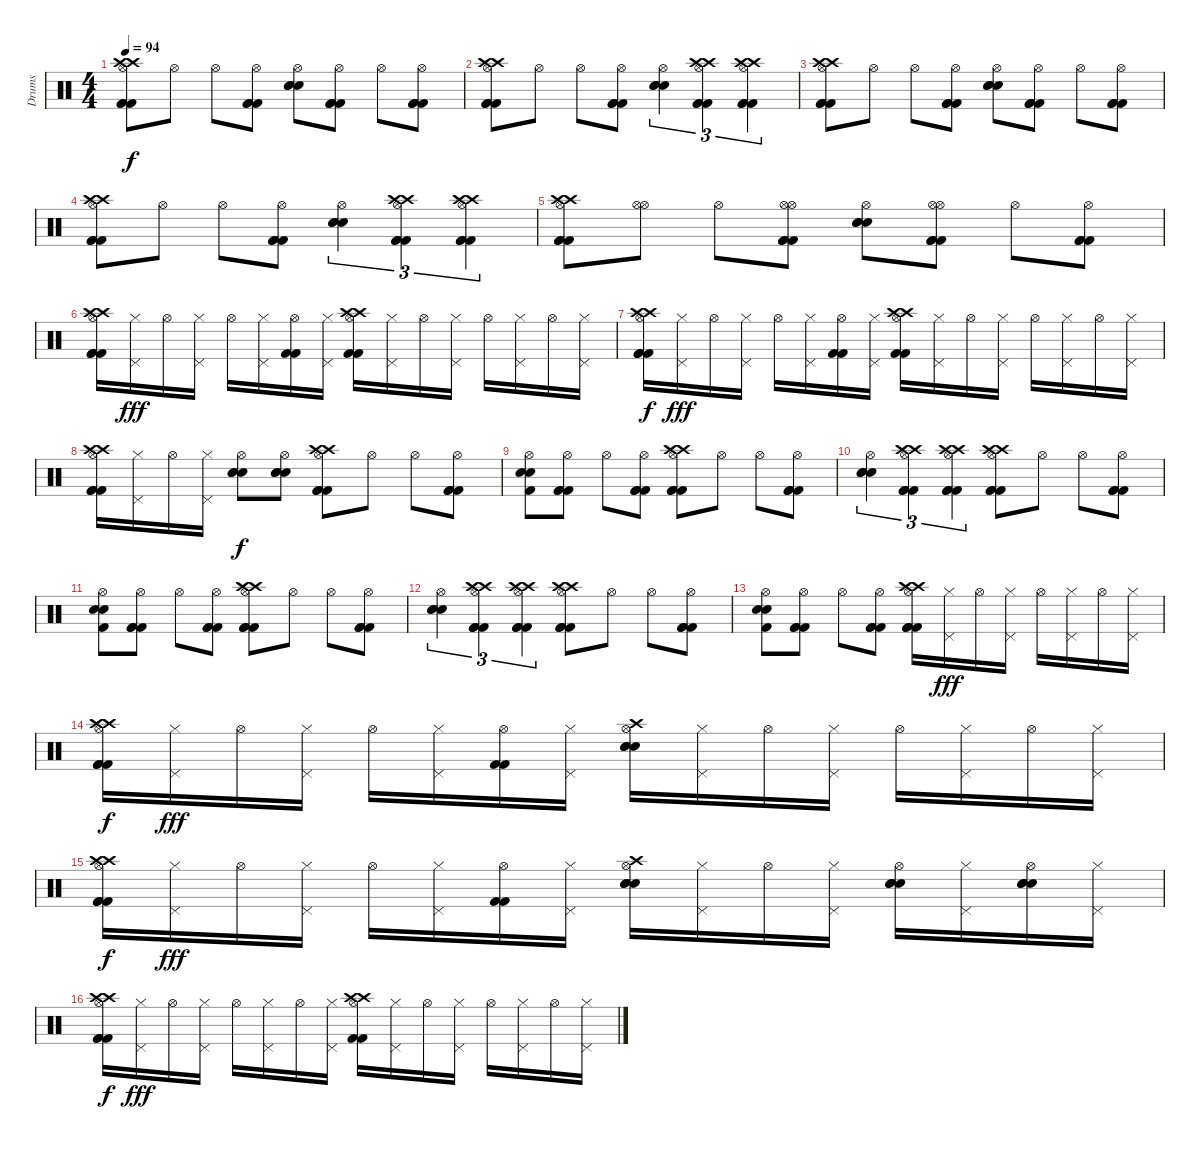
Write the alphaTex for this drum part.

\track ("Drums" "Drums") {instrument percussion}
\staff {score}
\articulation defaults
\ts (4 4)
\tempo 94
\clef neutral
\ks c
("Hi-Hat (open)" "Crash high (hit)" "Crash high (hit)" "Kick (hit) 2" "Kick (hit) 2" "Kick (hit) 2").8{dy f} "Hi-Hat (open)".8 "Hi-Hat (open)".8 ("Hi-Hat (open)" "Kick (hit) 2" "Kick (hit) 2" "Kick (hit) 2").8 ("Hi-Hat (open)" "Snare (hit) 2" "Snare (hit) 2" "Snare (hit) 2").8 ("Hi-Hat (open)" "Kick (hit) 2" "Kick (hit) 2" "Kick (hit) 2").8 "Hi-Hat (open)".8 ("Hi-Hat (open)" "Kick (hit) 2" "Kick (hit) 2" "Kick (hit) 2").8 |
("Hi-Hat (open)" "Crash high (hit)" "Crash high (hit)" "Kick (hit) 2" "Kick (hit) 2" "Kick (hit) 2").8 "Hi-Hat (open)".8 "Hi-Hat (open)".8 ("Hi-Hat (open)" "Kick (hit) 2" "Kick (hit) 2" "Kick (hit) 2").8 ("Hi-Hat (open)" "Snare (hit) 2" "Snare (hit) 2" "Snare (hit) 2").4{tu (3 2)} ("Hi-Hat (open)" "Crash high (hit)" "Crash high (hit)" "Kick (hit) 2" "Kick (hit) 2" "Kick (hit) 2").4{tu (3 2)} ("Hi-Hat (open)" "Crash high (hit)" "Crash high (hit)" "Kick (hit) 2" "Kick (hit) 2" "Kick (hit) 2").4{tu (3 2)} |
("Hi-Hat (open)" "Crash high (hit)" "Crash high (hit)" "Kick (hit) 2" "Kick (hit) 2" "Kick (hit) 2").8 "Hi-Hat (open)".8 "Hi-Hat (open)".8 ("Hi-Hat (open)" "Kick (hit) 2" "Kick (hit) 2" "Kick (hit) 2").8 ("Hi-Hat (open)" "Snare (hit) 2" "Snare (hit) 2" "Snare (hit) 2").8 ("Hi-Hat (open)" "Kick (hit) 2" "Kick (hit) 2" "Kick (hit) 2").8 "Hi-Hat (open)".8 ("Hi-Hat (open)" "Kick (hit) 2" "Kick (hit) 2" "Kick (hit) 2").8 |
("Hi-Hat (open)" "Crash high (hit)" "Crash high (hit)" "Kick (hit) 2" "Kick (hit) 2" "Kick (hit) 2").8 "Hi-Hat (open)".8 "Hi-Hat (open)".8 ("Hi-Hat (open)" "Kick (hit) 2" "Kick (hit) 2" "Kick (hit) 2").8 ("Hi-Hat (open)" "Snare (hit) 2" "Snare (hit) 2" "Snare (hit) 2").4{tu (3 2)} ("Hi-Hat (open)" "Crash high (hit)" "Crash high (hit)" "Kick (hit) 2" "Kick (hit) 2" "Kick (hit) 2").4{tu (3 2)} ("Hi-Hat (open)" "Crash high (hit)" "Crash high (hit)" "Kick (hit) 2" "Kick (hit) 2" "Kick (hit) 2").4{tu (3 2)} |
("Hi-Hat (open)" "Crash high (hit)" "Crash high (hit)" "Kick (hit) 2" "Kick (hit) 2" "Kick (hit) 2").8 ("Hi-Hat (open)" "Hi-Hat (open)").8 "Hi-Hat (open)".8 ("Hi-Hat (open)" "Hi-Hat (open)" "Kick (hit) 2" "Kick (hit) 2" "Kick (hit) 2").8 ("Hi-Hat (open)" "Snare (hit) 2" "Snare (hit) 2" "Snare (hit) 2").8 ("Hi-Hat (open)" "Hi-Hat (open)" "Kick (hit) 2" "Kick (hit) 2" "Kick (hit) 2").8 "Hi-Hat (open)".8 ("Hi-Hat (open)" "Kick (hit) 2" "Kick (hit) 2" "Kick (hit) 2").8 |
("Hi-Hat (open)" "Crash high (hit)" "Crash high (hit)" "Kick (hit) 2" "Kick (hit) 2" "Kick (hit) 2").16 ("Pedal Hi-Hat (hit)" "Hi-Hat (closed)").16{dy fff} "Hi-Hat (open)".16 ("Pedal Hi-Hat (hit)" "Hi-Hat (closed)").16 "Hi-Hat (open)".16 ("Pedal Hi-Hat (hit)" "Hi-Hat (closed)").16 ("Hi-Hat (open)" "Kick (hit) 2" "Kick (hit) 2").16 ("Pedal Hi-Hat (hit)" "Hi-Hat (closed)").16 ("Hi-Hat (open)" "Crash high (hit)" "Crash high (hit)" "Kick (hit) 2" "Kick (hit) 2").16 ("Pedal Hi-Hat (hit)" "Hi-Hat (closed)").16 "Hi-Hat (open)".16 ("Pedal Hi-Hat (hit)" "Hi-Hat (closed)").16 "Hi-Hat (open)".16 ("Pedal Hi-Hat (hit)" "Hi-Hat (closed)").16 "Hi-Hat (open)".16 ("Pedal Hi-Hat (hit)" "Hi-Hat (closed)").16 |
("Hi-Hat (open)" "Crash high (hit)" "Crash high (hit)" "Kick (hit) 2" "Kick (hit) 2" "Kick (hit) 2").16{dy f} ("Pedal Hi-Hat (hit)" "Hi-Hat (closed)").16{dy fff} "Hi-Hat (open)".16 ("Pedal Hi-Hat (hit)" "Hi-Hat (closed)").16 "Hi-Hat (open)".16 ("Pedal Hi-Hat (hit)" "Hi-Hat (closed)").16 ("Hi-Hat (open)" "Kick (hit) 2" "Kick (hit) 2").16 ("Pedal Hi-Hat (hit)" "Hi-Hat (closed)").16 ("Hi-Hat (open)" "Crash high (hit)" "Crash high (hit)" "Kick (hit) 2" "Kick (hit) 2").16 ("Pedal Hi-Hat (hit)" "Hi-Hat (closed)").16 "Hi-Hat (open)".16 ("Pedal Hi-Hat (hit)" "Hi-Hat (closed)").16 "Hi-Hat (open)".16 ("Pedal Hi-Hat (hit)" "Hi-Hat (closed)").16 "Hi-Hat (open)".16 ("Pedal Hi-Hat (hit)" "Hi-Hat (closed)").16 |
("Hi-Hat (open)" "Crash high (hit)" "Crash high (hit)" "Kick (hit) 2" "Kick (hit) 2" "Kick (hit) 2").16 ("Pedal Hi-Hat (hit)" "Hi-Hat (closed)").16 "Hi-Hat (open)".16 ("Pedal Hi-Hat (hit)" "Hi-Hat (closed)").16 ("Hi-Hat (open)" "Snare (hit) 2" "Snare (hit) 2" "Snare (hit) 2").8{dy f} ("Hi-Hat (open)" "Snare (hit) 2" "Snare (hit) 2" "Snare (hit) 2").8 ("Hi-Hat (open)" "Crash high (hit)" "Crash high (hit)" "Kick (hit) 2" "Kick (hit) 2" "Kick (hit) 2").8 "Hi-Hat (open)".8 "Hi-Hat (open)".8 ("Hi-Hat (open)" "Kick (hit) 2" "Kick (hit) 2" "Kick (hit) 2").8 |
("Hi-Hat (open)" "Snare (hit) 2" "Kick (hit) 2" "Snare (hit) 2").8 ("Hi-Hat (open)" "Kick (hit) 2" "Kick (hit) 2" "Kick (hit) 2").8 "Hi-Hat (open)".8 ("Hi-Hat (open)" "Kick (hit) 2" "Kick (hit) 2" "Kick (hit) 2").8 ("Hi-Hat (open)" "Crash high (hit)" "Crash high (hit)" "Kick (hit) 2" "Kick (hit) 2" "Kick (hit) 2").8 "Hi-Hat (open)".8 "Hi-Hat (open)".8 ("Hi-Hat (open)" "Kick (hit) 2" "Kick (hit) 2" "Kick (hit) 2").8 |
("Hi-Hat (open)" "Snare (hit) 2" "Snare (hit) 2" "Snare (hit) 2").4{tu (3 2)} ("Hi-Hat (open)" "Crash high (hit)" "Crash high (hit)" "Kick (hit) 2" "Kick (hit) 2" "Kick (hit) 2").4{tu (3 2)} ("Hi-Hat (open)" "Crash high (hit)" "Crash high (hit)" "Kick (hit) 2" "Kick (hit) 2" "Kick (hit) 2").4{tu (3 2)} ("Hi-Hat (open)" "Crash high (hit)" "Crash high (hit)" "Kick (hit) 2" "Kick (hit) 2" "Kick (hit) 2").8 "Hi-Hat (open)".8 "Hi-Hat (open)".8 ("Hi-Hat (open)" "Kick (hit) 2" "Kick (hit) 2" "Kick (hit) 2").8 |
("Hi-Hat (open)" "Snare (hit) 2" "Kick (hit) 2" "Snare (hit) 2").8 ("Hi-Hat (open)" "Kick (hit) 2" "Kick (hit) 2" "Kick (hit) 2").8 "Hi-Hat (open)".8 ("Hi-Hat (open)" "Kick (hit) 2" "Kick (hit) 2" "Kick (hit) 2").8 ("Hi-Hat (open)" "Crash high (hit)" "Crash high (hit)" "Kick (hit) 2" "Kick (hit) 2" "Kick (hit) 2").8 "Hi-Hat (open)".8 "Hi-Hat (open)".8 ("Hi-Hat (open)" "Kick (hit) 2" "Kick (hit) 2" "Kick (hit) 2").8 |
("Hi-Hat (open)" "Snare (hit) 2" "Snare (hit) 2" "Snare (hit) 2").4{tu (3 2)} ("Hi-Hat (open)" "Crash high (hit)" "Crash high (hit)" "Kick (hit) 2" "Kick (hit) 2" "Kick (hit) 2").4{tu (3 2)} ("Hi-Hat (open)" "Crash high (hit)" "Crash high (hit)" "Kick (hit) 2" "Kick (hit) 2" "Kick (hit) 2").4{tu (3 2)} ("Hi-Hat (open)" "Crash high (hit)" "Crash high (hit)" "Kick (hit) 2" "Kick (hit) 2" "Kick (hit) 2").8 "Hi-Hat (open)".8 "Hi-Hat (open)".8 ("Hi-Hat (open)" "Kick (hit) 2" "Kick (hit) 2" "Kick (hit) 2").8 |
("Hi-Hat (open)" "Snare (hit) 2" "Kick (hit) 2" "Snare (hit) 2").8 ("Hi-Hat (open)" "Kick (hit) 2" "Kick (hit) 2" "Kick (hit) 2").8 "Hi-Hat (open)".8 ("Hi-Hat (open)" "Kick (hit) 2" "Kick (hit) 2" "Kick (hit) 2").8 ("Hi-Hat (open)" "Crash high (hit)" "Crash high (hit)" "Kick (hit) 2" "Kick (hit) 2" "Kick (hit) 2").16 ("Pedal Hi-Hat (hit)" "Hi-Hat (closed)").16{dy fff} "Hi-Hat (open)".16 ("Pedal Hi-Hat (hit)" "Hi-Hat (closed)").16 "Hi-Hat (open)".16 ("Pedal Hi-Hat (hit)" "Hi-Hat (closed)").16 "Hi-Hat (open)".16 ("Pedal Hi-Hat (hit)" "Hi-Hat (closed)").16 |
("Hi-Hat (open)" "Crash high (hit)" "Crash high (hit)" "Kick (hit) 2" "Kick (hit) 2" "Kick (hit) 2").16{dy f} ("Pedal Hi-Hat (hit)" "Hi-Hat (closed)").16{dy fff} "Hi-Hat (open)".16 ("Pedal Hi-Hat (hit)" "Hi-Hat (closed)").16 "Hi-Hat (open)".16 ("Pedal Hi-Hat (hit)" "Hi-Hat (closed)").16 ("Hi-Hat (open)" "Kick (hit) 2" "Kick (hit) 2").16 ("Pedal Hi-Hat (hit)" "Hi-Hat (closed)").16 ("Hi-Hat (open)" "Crash high (hit)" "Snare (hit) 2" "Snare (hit) 2" "Snare (hit) 2").16 ("Pedal Hi-Hat (hit)" "Hi-Hat (closed)").16 "Hi-Hat (open)".16 ("Pedal Hi-Hat (hit)" "Hi-Hat (closed)").16 "Hi-Hat (open)".16 ("Pedal Hi-Hat (hit)" "Hi-Hat (closed)").16 "Hi-Hat (open)".16 ("Pedal Hi-Hat (hit)" "Hi-Hat (closed)").16 |
("Hi-Hat (open)" "Crash high (hit)" "Crash high (hit)" "Kick (hit) 2" "Kick (hit) 2" "Kick (hit) 2").16{dy f} ("Pedal Hi-Hat (hit)" "Hi-Hat (closed)").16{dy fff} "Hi-Hat (open)".16 ("Pedal Hi-Hat (hit)" "Hi-Hat (closed)").16 "Hi-Hat (open)".16 ("Pedal Hi-Hat (hit)" "Hi-Hat (closed)").16 ("Hi-Hat (open)" "Kick (hit) 2" "Kick (hit) 2").16 ("Pedal Hi-Hat (hit)" "Hi-Hat (closed)").16 ("Hi-Hat (open)" "Crash high (hit)" "Snare (hit) 2" "Snare (hit) 2" "Snare (hit) 2").16 ("Pedal Hi-Hat (hit)" "Hi-Hat (closed)").16 "Hi-Hat (open)".16 ("Pedal Hi-Hat (hit)" "Hi-Hat (closed)").16 ("Hi-Hat (open)" "Snare (hit) 2" "Snare (hit) 2" "Snare (hit) 2").16 ("Pedal Hi-Hat (hit)" "Hi-Hat (closed)").16 ("Hi-Hat (open)" "Snare (hit) 2" "Snare (hit) 2" "Snare (hit) 2").16 ("Pedal Hi-Hat (hit)" "Hi-Hat (closed)").16 |
("Hi-Hat (open)" "Crash high (hit)" "Crash high (hit)" "Kick (hit) 2" "Kick (hit) 2" "Kick (hit) 2").16{dy f} ("Pedal Hi-Hat (hit)" "Hi-Hat (closed)").16{dy fff} "Hi-Hat (open)".16 ("Pedal Hi-Hat (hit)" "Hi-Hat (closed)").16 "Hi-Hat (open)".16 ("Pedal Hi-Hat (hit)" "Hi-Hat (closed)").16 "Hi-Hat (open)".16 ("Pedal Hi-Hat (hit)" "Hi-Hat (closed)").16 ("Hi-Hat (open)" "Crash high (hit)" "Crash high (hit)" "Kick (hit) 2" "Kick (hit) 2").16 ("Pedal Hi-Hat (hit)" "Hi-Hat (closed)").16 "Hi-Hat (open)".16 ("Pedal Hi-Hat (hit)" "Hi-Hat (closed)").16 "Hi-Hat (open)".16 ("Pedal Hi-Hat (hit)" "Hi-Hat (closed)").16 "Hi-Hat (open)".16 ("Pedal Hi-Hat (hit)" "Hi-Hat (closed)").16
